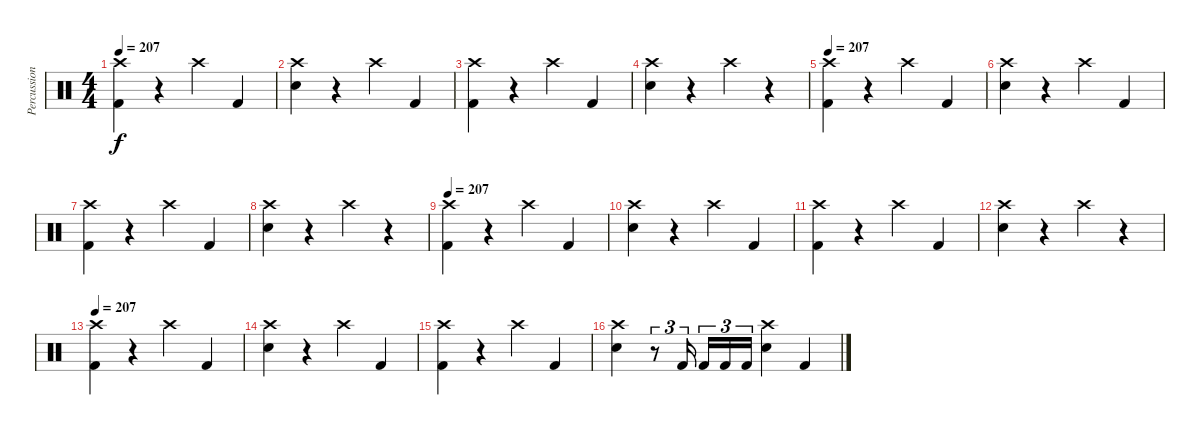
\track ("Percussion" "Percussion") {instrument percussion}
\staff {score}
\articulation defaults
\ts (4 4)
\tempo 207
\clef neutral
\ks c
("Crash high (hit)" "Kick (hit) 2").4{dy f} r.4 "Crash high (hit)".4 "Kick (hit) 2".4 |
("Crash high (hit)" "Electric Snare (hit)").4 r.4 "Crash high (hit)".4 "Kick (hit) 2".4 |
("Crash high (hit)" "Kick (hit) 2").4 r.4 "Crash high (hit)".4 "Kick (hit) 2".4 |
("Crash high (hit)" "Electric Snare (hit)").4 r.4 "Crash high (hit)".4 r.4 |
\tempo 207
("Crash high (hit)" "Kick (hit) 2").4 r.4 "Crash high (hit)".4 "Kick (hit) 2".4 |
("Crash high (hit)" "Electric Snare (hit)").4 r.4 "Crash high (hit)".4 "Kick (hit) 2".4 |
("Crash high (hit)" "Kick (hit) 2").4 r.4 "Crash high (hit)".4 "Kick (hit) 2".4 |
("Crash high (hit)" "Electric Snare (hit)").4 r.4 "Crash high (hit)".4 r.4 |
\tempo 207
("Crash high (hit)" "Kick (hit) 2").4 r.4 "Crash high (hit)".4 "Kick (hit) 2".4 |
("Crash high (hit)" "Electric Snare (hit)").4 r.4 "Crash high (hit)".4 "Kick (hit) 2".4 |
("Crash high (hit)" "Kick (hit) 2").4 r.4 "Crash high (hit)".4 "Kick (hit) 2".4 |
("Crash high (hit)" "Electric Snare (hit)").4 r.4 "Crash high (hit)".4 r.4 |
\tempo 207
("Crash high (hit)" "Kick (hit) 2").4 r.4 "Crash high (hit)".4 "Kick (hit) 2".4 |
("Crash high (hit)" "Electric Snare (hit)").4 r.4 "Crash high (hit)".4 "Kick (hit) 2".4 |
("Crash high (hit)" "Kick (hit) 2").4 r.4 "Crash high (hit)".4 "Kick (hit) 2".4 |
("Crash high (hit)" "Electric Snare (hit)").4 r.8{tu (3 2)} "Kick (hit) 2".16{tu (3 2) beam splitsecondary} "Kick (hit) 2".16{tu (3 2)} "Kick (hit) 2".16{tu (3 2)} "Kick (hit) 2".16{tu (3 2)} ("Crash high (hit)" "Electric Snare (hit)").4 "Kick (hit) 2".4
